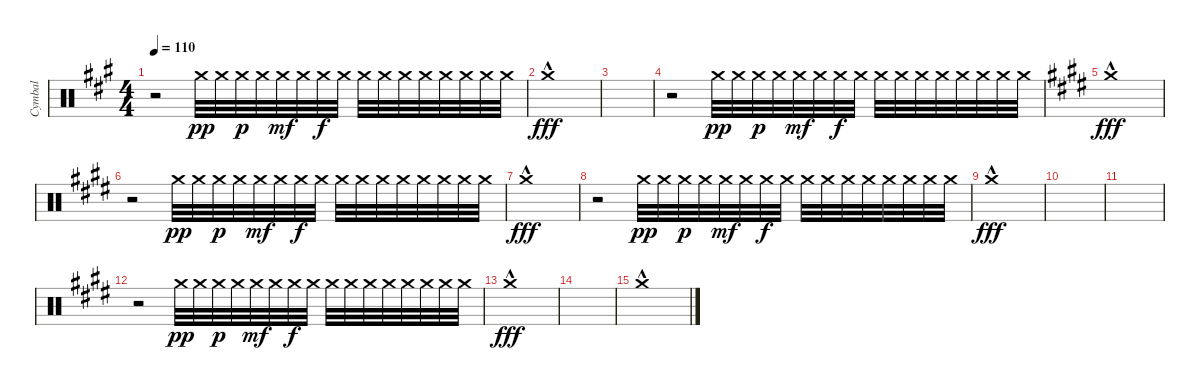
\track ("Cymbal" "Cymbal") {instrument percussion}
\staff {score}
\articulation defaults
\ts (4 4)
\tempo 110
\clef neutral
\ks f#minor
r.2{dy fff} "Crash medium (hit)".32{dy pp} "Crash medium (hit)".32 "Crash medium (hit)".32{dy p} "Crash medium (hit)".32 "Crash medium (hit)".32{dy mf} "Crash medium (hit)".32 "Crash medium (hit)".32{dy f} "Crash medium (hit)".32 "Crash medium (hit)".32 "Crash medium (hit)".32 "Crash medium (hit)".32 "Crash medium (hit)".32 "Crash medium (hit)".32 "Crash medium (hit)".32 "Crash medium (hit)".32 "Crash medium (hit)".32 |
"Crash medium (hit)"{hac}.1{dy fff} |
|
r.2 "Crash medium (hit)".32{dy pp} "Crash medium (hit)".32 "Crash medium (hit)".32{dy p} "Crash medium (hit)".32 "Crash medium (hit)".32{dy mf} "Crash medium (hit)".32 "Crash medium (hit)".32{dy f} "Crash medium (hit)".32 "Crash medium (hit)".32 "Crash medium (hit)".32 "Crash medium (hit)".32 "Crash medium (hit)".32 "Crash medium (hit)".32 "Crash medium (hit)".32 "Crash medium (hit)".32 "Crash medium (hit)".32 |
\ks e "Crash medium (hit)"{hac}.1{dy fff}
|
r.2 "Crash medium (hit)".32{dy pp} "Crash medium (hit)".32 "Crash medium (hit)".32{dy p} "Crash medium (hit)".32 "Crash medium (hit)".32{dy mf} "Crash medium (hit)".32 "Crash medium (hit)".32{dy f} "Crash medium (hit)".32 "Crash medium (hit)".32 "Crash medium (hit)".32 "Crash medium (hit)".32 "Crash medium (hit)".32 "Crash medium (hit)".32 "Crash medium (hit)".32 "Crash medium (hit)".32 "Crash medium (hit)".32 |
"Crash medium (hit)"{hac}.1{dy fff} |
r.2 "Crash medium (hit)".32{dy pp} "Crash medium (hit)".32 "Crash medium (hit)".32{dy p} "Crash medium (hit)".32 "Crash medium (hit)".32{dy mf} "Crash medium (hit)".32 "Crash medium (hit)".32{dy f} "Crash medium (hit)".32 "Crash medium (hit)".32 "Crash medium (hit)".32 "Crash medium (hit)".32 "Crash medium (hit)".32 "Crash medium (hit)".32 "Crash medium (hit)".32 "Crash medium (hit)".32 "Crash medium (hit)".32 |
"Crash medium (hit)"{hac}.1{dy fff} |
|
|
r.2 "Crash medium (hit)".32{dy pp} "Crash medium (hit)".32 "Crash medium (hit)".32{dy p} "Crash medium (hit)".32 "Crash medium (hit)".32{dy mf} "Crash medium (hit)".32 "Crash medium (hit)".32{dy f} "Crash medium (hit)".32 "Crash medium (hit)".32 "Crash medium (hit)".32 "Crash medium (hit)".32 "Crash medium (hit)".32 "Crash medium (hit)".32 "Crash medium (hit)".32 "Crash medium (hit)".32 "Crash medium (hit)".32 |
"Crash medium (hit)"{hac}.1{dy fff} |
|
"Crash medium (hit)"{hac}.1
